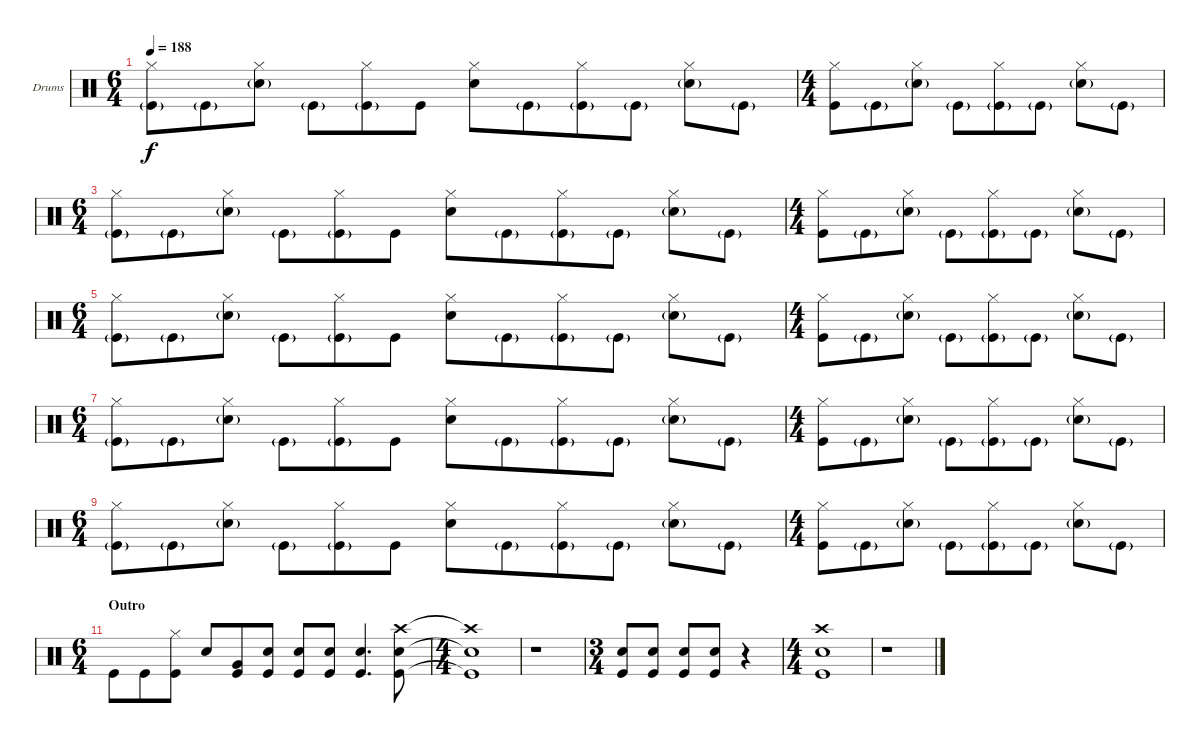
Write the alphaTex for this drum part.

\bracketExtendMode nobrackets
\firstSystemTrackNameOrientation horizontal
\otherSystemsTrackNameOrientation horizontal
\defaultBarNumberDisplay FirstOfSystem
\track ("Drumkit" "Drums") {instrument percussion}
\staff {score}
\articulation defaults
\ts (6 4)
\tempo 188
\clef neutral
\ks c
("Kick (hit)"{g} "Hi-Hat (closed)").8{dy f beam merge} "Kick (hit)"{g}.8{beam merge} ("Snare (hit) 2"{g} "Hi-Hat (closed)").8{beam split} "Kick (hit)"{g}.8{beam merge} ("Kick (hit)"{g} "Hi-Hat (closed)").8 "Kick (hit)".8 ("Snare (hit) 2" "Hi-Hat (closed)").8 "Kick (hit)"{g}.8{beam merge} ("Kick (hit)"{g} "Hi-Hat (closed)").8 "Kick (hit)"{g}.8 ("Snare (hit) 2"{g} "Hi-Hat (closed)").8 "Kick (hit)"{g}.8 |
\ts (4 4)
("Kick (hit)" "Hi-Hat (closed)").8{beam merge} "Kick (hit)"{g}.8{beam merge} ("Snare (hit) 2"{g} "Hi-Hat (closed)").8{beam split} "Kick (hit)"{g}.8{beam merge} ("Kick (hit)"{g} "Hi-Hat (closed)").8 "Kick (hit)"{g}.8 ("Snare (hit) 2"{g} "Hi-Hat (closed)").8 "Kick (hit)"{g}.8 |
\ts (6 4)
("Kick (hit)"{g} "Hi-Hat (closed)").8{beam merge} "Kick (hit)"{g}.8{beam merge} ("Snare (hit) 2"{g} "Hi-Hat (closed)").8{beam split} "Kick (hit)"{g}.8{beam merge} ("Kick (hit)"{g} "Hi-Hat (closed)").8 "Kick (hit)".8 ("Snare (hit) 2" "Hi-Hat (closed)").8 "Kick (hit)"{g}.8{beam merge} ("Kick (hit)"{g} "Hi-Hat (closed)").8 "Kick (hit)"{g}.8 ("Snare (hit) 2"{g} "Hi-Hat (closed)").8 "Kick (hit)"{g}.8 |
\ts (4 4)
("Kick (hit)" "Hi-Hat (closed)").8{beam merge} "Kick (hit)"{g}.8{beam merge} ("Snare (hit) 2"{g} "Hi-Hat (closed)").8{beam split} "Kick (hit)"{g}.8{beam merge} ("Kick (hit)"{g} "Hi-Hat (closed)").8 "Kick (hit)"{g}.8 ("Snare (hit) 2"{g} "Hi-Hat (closed)").8 "Kick (hit)"{g}.8 |
\ts (6 4)
("Kick (hit)"{g} "Hi-Hat (closed)").8{beam merge} "Kick (hit)"{g}.8{beam merge} ("Snare (hit) 2"{g} "Hi-Hat (closed)").8{beam split} "Kick (hit)"{g}.8{beam merge} ("Kick (hit)"{g} "Hi-Hat (closed)").8 "Kick (hit)".8 ("Snare (hit) 2" "Hi-Hat (closed)").8 "Kick (hit)"{g}.8{beam merge} ("Kick (hit)"{g} "Hi-Hat (closed)").8 "Kick (hit)"{g}.8 ("Snare (hit) 2"{g} "Hi-Hat (closed)").8 "Kick (hit)"{g}.8 |
\ts (4 4)
("Kick (hit)" "Hi-Hat (closed)").8{beam merge} "Kick (hit)"{g}.8{beam merge} ("Snare (hit) 2"{g} "Hi-Hat (closed)").8{beam split} "Kick (hit)"{g}.8{beam merge} ("Kick (hit)"{g} "Hi-Hat (closed)").8 "Kick (hit)"{g}.8 ("Snare (hit) 2"{g} "Hi-Hat (closed)").8 "Kick (hit)"{g}.8 |
\ts (6 4)
("Kick (hit)"{g} "Hi-Hat (closed)").8{beam merge} "Kick (hit)"{g}.8{beam merge} ("Snare (hit) 2"{g} "Hi-Hat (closed)").8{beam split} "Kick (hit)"{g}.8{beam merge} ("Kick (hit)"{g} "Hi-Hat (closed)").8 "Kick (hit)".8 ("Snare (hit) 2" "Hi-Hat (closed)").8 "Kick (hit)"{g}.8{beam merge} ("Kick (hit)"{g} "Hi-Hat (closed)").8 "Kick (hit)"{g}.8 ("Snare (hit) 2"{g} "Hi-Hat (closed)").8 "Kick (hit)"{g}.8 |
\ts (4 4)
("Kick (hit)" "Hi-Hat (closed)").8{beam merge} "Kick (hit)"{g}.8{beam merge} ("Snare (hit) 2"{g} "Hi-Hat (closed)").8{beam split} "Kick (hit)"{g}.8{beam merge} ("Kick (hit)"{g} "Hi-Hat (closed)").8 "Kick (hit)"{g}.8 ("Snare (hit) 2"{g} "Hi-Hat (closed)").8 "Kick (hit)"{g}.8 |
\ts (6 4)
("Kick (hit)"{g} "Hi-Hat (closed)").8{beam merge} "Kick (hit)"{g}.8{beam merge} ("Snare (hit) 2"{g} "Hi-Hat (closed)").8{beam split} "Kick (hit)"{g}.8{beam merge} ("Kick (hit)"{g} "Hi-Hat (closed)").8 "Kick (hit)".8 ("Snare (hit) 2" "Hi-Hat (closed)").8 "Kick (hit)"{g}.8{beam merge} ("Kick (hit)"{g} "Hi-Hat (closed)").8 "Kick (hit)"{g}.8 ("Snare (hit) 2"{g} "Hi-Hat (closed)").8 "Kick (hit)"{g}.8 |
\ts (4 4)
("Kick (hit)" "Hi-Hat (closed)").8{beam merge} "Kick (hit)"{g}.8{beam merge} ("Snare (hit) 2"{g} "Hi-Hat (closed)").8{beam split} "Kick (hit)"{g}.8{beam merge} ("Kick (hit)"{g} "Hi-Hat (closed)").8 "Kick (hit)"{g}.8 ("Snare (hit) 2"{g} "Hi-Hat (closed)").8 "Kick (hit)"{g}.8 |
\ts (6 4)
\section ("" "Outro")
"Kick (hit)".8{beam merge} "Kick (hit)".8{beam merge} ("Kick (hit)" "Hi-Hat (closed)").8{beam split} "Snare (hit) 2".8{beam merge} ("Kick (hit)" "Very Low Tom (hit)").8 ("Snare (hit) 2" "Kick (hit)").8 ("Snare (hit) 2" "Kick (hit)").8 ("Snare (hit) 2" "Kick (hit)").8 ("Snare (hit) 2" "Kick (hit)").4{d} ("Crash high (hit)" "Snare (hit) 2" "Kick (hit)").8 |
\ts (4 4)
("Crash high (hit)"{t} "Snare (hit) 2"{t} "Kick (hit)"{t}).1 |
r.1 |
\ts (3 4)
("Kick (hit)" "Snare (hit) 2").8 ("Kick (hit)" "Snare (hit) 2").8 ("Kick (hit)" "Snare (hit) 2").8 ("Kick (hit)" "Snare (hit) 2").8 r.4 |
\ts (4 4)
("Crash high (hit)" "Snare (hit) 2" "Kick (hit)").1 |
r.1
